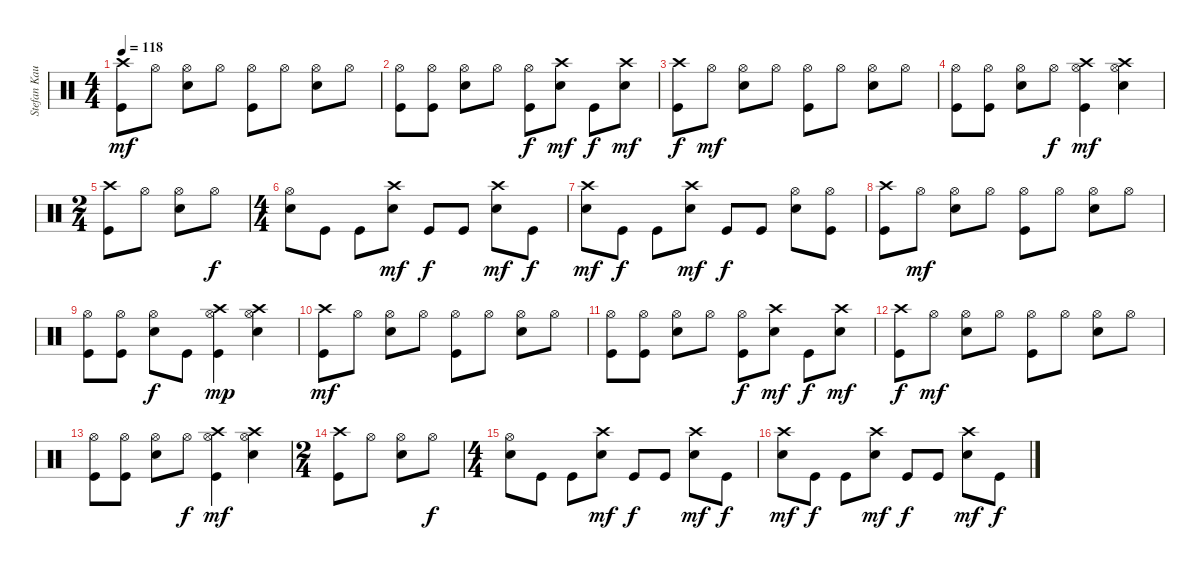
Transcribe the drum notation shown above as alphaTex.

\track ("Stefan Kaufmann" "Stefan Kau") {instrument percussion}
\staff {score}
\articulation defaults
\ts (4 4)
\tempo 118
\clef neutral
\ks c
("Crash high (hit)" "Kick (hit)").8{dy mf} "Hi-Hat (open)".8 ("Hi-Hat (open)" "Snare (hit) 2").8 "Hi-Hat (open)".8 ("Hi-Hat (open)" "Kick (hit)").8 "Hi-Hat (open)".8 ("Hi-Hat (open)" "Snare (hit) 2").8 "Hi-Hat (open)".8 |
("Hi-Hat (open)" "Kick (hit)").8 ("Hi-Hat (open)" "Kick (hit)").8 ("Hi-Hat (open)" "Snare (hit) 2").8 "Hi-Hat (open)".8 ("Hi-Hat (open)" "Kick (hit)").8{dy f} ("Snare (hit) 2" "Crash high (hit)").8{dy mf} "Kick (hit)".8{dy f} ("Snare (hit) 2" "Crash high (hit)").8{dy mf} |
("Crash high (hit)" "Kick (hit)").8{dy f} "Hi-Hat (open)".8{dy mf} ("Hi-Hat (open)" "Snare (hit) 2").8 "Hi-Hat (open)".8 ("Hi-Hat (open)" "Kick (hit)").8 "Hi-Hat (open)".8 ("Hi-Hat (open)" "Snare (hit) 2").8 "Hi-Hat (open)".8 |
("Hi-Hat (open)" "Kick (hit)").8 ("Hi-Hat (open)" "Kick (hit)").8 ("Hi-Hat (open)" "Snare (hit) 2").8 "Hi-Hat (open)".8{dy f} ("Hi-Hat (open)" "Kick (hit)" "Crash high (hit)").4{dy mf} ("Hi-Hat (open)" "Snare (hit) 2" "Crash high (hit)").4 |
\ts (2 4)
("Crash high (hit)" "Kick (hit)").8 "Hi-Hat (open)".8 ("Hi-Hat (open)" "Snare (hit) 2").8 "Hi-Hat (open)".8{dy f} |
\ts (4 4)
("Hi-Hat (open)" "Snare (hit) 2").8 "Kick (hit)".8 "Kick (hit)".8 ("Crash high (hit)" "Snare (hit) 2").8{dy mf} "Kick (hit)".8{dy f} "Kick (hit)".8 ("Crash high (hit)" "Snare (hit) 2").8{dy mf} "Kick (hit)".8{dy f} |
("Crash high (hit)" "Snare (hit) 2").8{dy mf} "Kick (hit)".8{dy f} "Kick (hit)".8 ("Crash high (hit)" "Snare (hit) 2").8{dy mf} "Kick (hit)".8{dy f} "Kick (hit)".8 ("Hi-Hat (open)" "Snare (hit) 2").8 ("Hi-Hat (open)" "Kick (hit)").8 |
("Crash high (hit)" "Kick (hit)").8 "Hi-Hat (open)".8{dy mf} ("Hi-Hat (open)" "Snare (hit) 2").8 "Hi-Hat (open)".8 ("Hi-Hat (open)" "Kick (hit)").8 "Hi-Hat (open)".8 ("Hi-Hat (open)" "Snare (hit) 2").8 "Hi-Hat (open)".8 |
("Hi-Hat (open)" "Kick (hit)").8 ("Hi-Hat (open)" "Kick (hit)").8 ("Hi-Hat (open)" "Snare (hit) 2").8{dy f} "Kick (hit)".8 ("Hi-Hat (open)" "Kick (hit)" "Crash high (hit)").4{dy mp} ("Hi-Hat (open)" "Snare (hit) 2" "Crash high (hit)").4 |
("Crash high (hit)" "Kick (hit)").8{dy mf} "Hi-Hat (open)".8 ("Hi-Hat (open)" "Snare (hit) 2").8 "Hi-Hat (open)".8 ("Hi-Hat (open)" "Kick (hit)").8 "Hi-Hat (open)".8 ("Hi-Hat (open)" "Snare (hit) 2").8 "Hi-Hat (open)".8 |
("Hi-Hat (open)" "Kick (hit)").8 ("Hi-Hat (open)" "Kick (hit)").8 ("Hi-Hat (open)" "Snare (hit) 2").8 "Hi-Hat (open)".8 ("Hi-Hat (open)" "Kick (hit)").8{dy f} ("Snare (hit) 2" "Crash high (hit)").8{dy mf} "Kick (hit)".8{dy f} ("Snare (hit) 2" "Crash high (hit)").8{dy mf} |
("Crash high (hit)" "Kick (hit)").8{dy f} "Hi-Hat (open)".8{dy mf} ("Hi-Hat (open)" "Snare (hit) 2").8 "Hi-Hat (open)".8 ("Hi-Hat (open)" "Kick (hit)").8 "Hi-Hat (open)".8 ("Hi-Hat (open)" "Snare (hit) 2").8 "Hi-Hat (open)".8 |
("Hi-Hat (open)" "Kick (hit)").8 ("Hi-Hat (open)" "Kick (hit)").8 ("Hi-Hat (open)" "Snare (hit) 2").8 "Hi-Hat (open)".8{dy f} ("Hi-Hat (open)" "Kick (hit)" "Crash high (hit)").4{dy mf} ("Hi-Hat (open)" "Snare (hit) 2" "Crash high (hit)").4 |
\ts (2 4)
("Crash high (hit)" "Kick (hit)").8 "Hi-Hat (open)".8 ("Hi-Hat (open)" "Snare (hit) 2").8 "Hi-Hat (open)".8{dy f} |
\ts (4 4)
("Hi-Hat (open)" "Snare (hit) 2").8 "Kick (hit)".8 "Kick (hit)".8 ("Crash high (hit)" "Snare (hit) 2").8{dy mf} "Kick (hit)".8{dy f} "Kick (hit)".8 ("Crash high (hit)" "Snare (hit) 2").8{dy mf} "Kick (hit)".8{dy f} |
("Crash high (hit)" "Snare (hit) 2").8{dy mf} "Kick (hit)".8{dy f} "Kick (hit)".8 ("Crash high (hit)" "Snare (hit) 2").8{dy mf} "Kick (hit)".8{dy f} "Kick (hit)".8 ("Crash high (hit)" "Snare (hit) 2").8{dy mf} "Kick (hit)".8{dy f}
